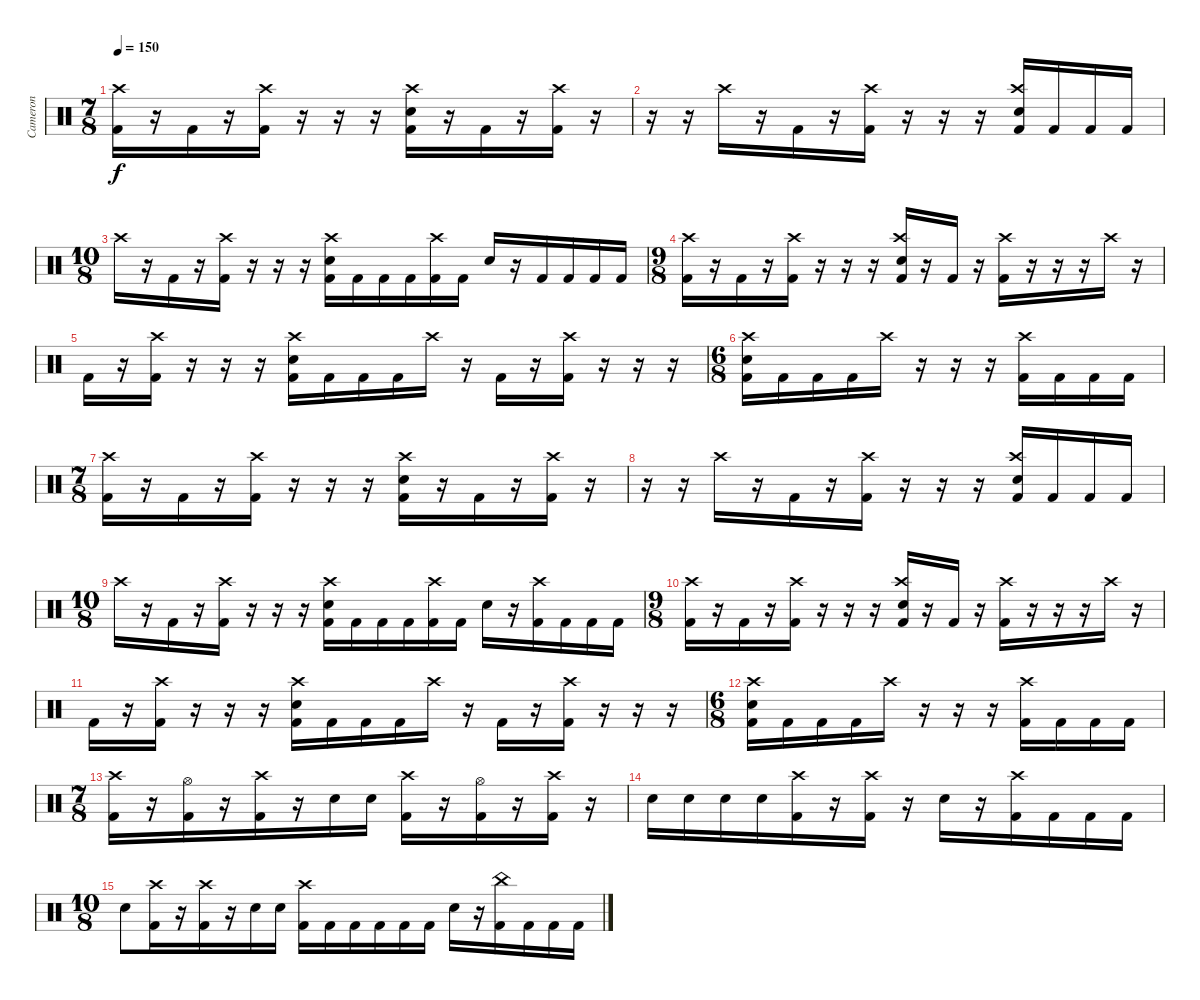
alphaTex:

\track ("Cameron" "Cameron") {instrument percussion}
\staff {score}
\articulation defaults
\ts (7 8)
\tempo 150
\clef neutral
\ks c
("Kick (hit) 2" "Crash high (hit)").16{dy f} r.16 "Kick (hit) 2".16 r.16 ("Kick (hit) 2" "Crash high (hit)").16 r.16 r.16 r.16 ("Kick (hit) 2" "Electric Snare (hit)" "Crash high (hit)").16 r.16 "Kick (hit) 2".16 r.16 ("Kick (hit) 2" "Crash high (hit)").16 r.16 |
r.16 r.16 "Crash high (hit)".16 r.16 "Kick (hit) 2".16 r.16 ("Kick (hit) 2" "Crash high (hit)").16 r.16 r.16 r.16 ("Kick (hit) 2" "Electric Snare (hit)" "Crash high (hit)").16 "Kick (hit) 2".16 "Kick (hit) 2".16 "Kick (hit) 2".16 |
\ts (10 8)
"Crash high (hit)".16 r.16 "Kick (hit) 2".16 r.16 ("Kick (hit) 2" "Crash high (hit)").16 r.16 r.16 r.16 ("Kick (hit) 2" "Electric Snare (hit)" "Crash high (hit)").16 "Kick (hit) 2".16 "Kick (hit) 2".16 "Kick (hit) 2".16 ("Kick (hit) 2" "Crash high (hit)").16 "Kick (hit) 2".16 "Electric Snare (hit)".16 r.16 "Kick (hit) 2".16 "Kick (hit) 2".16 "Kick (hit) 2".16 "Kick (hit) 2".16 |
\ts (9 8)
("Kick (hit) 2" "Crash high (hit)").16 r.16 "Kick (hit) 2".16 r.16 ("Kick (hit) 2" "Crash high (hit)").16 r.16 r.16 r.16 ("Kick (hit) 2" "Electric Snare (hit)" "Crash high (hit)").16 r.16 "Kick (hit) 2".16 r.16 ("Kick (hit) 2" "Crash high (hit)").16 r.16 r.16 r.16 "Crash high (hit)".16 r.16 |
"Kick (hit) 2".16 r.16 ("Kick (hit) 2" "Crash high (hit)").16 r.16 r.16 r.16 ("Kick (hit) 2" "Electric Snare (hit)" "Crash high (hit)").16 "Kick (hit) 2".16 "Kick (hit) 2".16 "Kick (hit) 2".16 "Crash high (hit)".16 r.16 "Kick (hit) 2".16 r.16 ("Kick (hit) 2" "Crash high (hit)").16 r.16 r.16 r.16 |
\ts (6 8)
("Kick (hit) 2" "Electric Snare (hit)" "Crash high (hit)").16 "Kick (hit) 2".16 "Kick (hit) 2".16 "Kick (hit) 2".16 "Crash high (hit)".16 r.16 r.16 r.16 ("Kick (hit) 2" "Crash high (hit)").16 "Kick (hit) 2".16 "Kick (hit) 2".16 "Kick (hit) 2".16 |
\ts (7 8)
("Kick (hit) 2" "Crash high (hit)").16 r.16 "Kick (hit) 2".16 r.16 ("Kick (hit) 2" "Crash high (hit)").16 r.16 r.16 r.16 ("Kick (hit) 2" "Electric Snare (hit)" "Crash high (hit)").16 r.16 "Kick (hit) 2".16 r.16 ("Kick (hit) 2" "Crash high (hit)").16 r.16 |
r.16 r.16 "Crash high (hit)".16 r.16 "Kick (hit) 2".16 r.16 ("Kick (hit) 2" "Crash high (hit)").16 r.16 r.16 r.16 ("Kick (hit) 2" "Electric Snare (hit)" "Crash high (hit)").16 "Kick (hit) 2".16 "Kick (hit) 2".16 "Kick (hit) 2".16 |
\ts (10 8)
"Crash high (hit)".16 r.16 "Kick (hit) 2".16 r.16 ("Kick (hit) 2" "Crash high (hit)").16 r.16 r.16 r.16 ("Kick (hit) 2" "Electric Snare (hit)" "Crash high (hit)").16 "Kick (hit) 2".16 "Kick (hit) 2".16 "Kick (hit) 2".16 ("Kick (hit) 2" "Crash high (hit)").16 "Kick (hit) 2".16 "Electric Snare (hit)".16 r.16 ("Kick (hit) 2" "Crash high (hit)").16 "Kick (hit) 2".16 "Kick (hit) 2".16 "Kick (hit) 2".16 |
\ts (9 8)
("Kick (hit) 2" "Crash high (hit)").16 r.16 "Kick (hit) 2".16 r.16 ("Kick (hit) 2" "Crash high (hit)").16 r.16 r.16 r.16 ("Kick (hit) 2" "Electric Snare (hit)" "Crash high (hit)").16 r.16 "Kick (hit) 2".16 r.16 ("Kick (hit) 2" "Crash high (hit)").16 r.16 r.16 r.16 "Crash high (hit)".16 r.16 |
"Kick (hit) 2".16 r.16 ("Kick (hit) 2" "Crash high (hit)").16 r.16 r.16 r.16 ("Kick (hit) 2" "Electric Snare (hit)" "Crash high (hit)").16 "Kick (hit) 2".16 "Kick (hit) 2".16 "Kick (hit) 2".16 "Crash high (hit)".16 r.16 "Kick (hit) 2".16 r.16 ("Kick (hit) 2" "Crash high (hit)").16 r.16 r.16 r.16 |
\ts (6 8)
("Kick (hit) 2" "Electric Snare (hit)" "Crash high (hit)").16 "Kick (hit) 2".16 "Kick (hit) 2".16 "Kick (hit) 2".16 "Crash high (hit)".16 r.16 r.16 r.16 ("Kick (hit) 2" "Crash high (hit)").16 "Kick (hit) 2".16 "Kick (hit) 2".16 "Kick (hit) 2".16 |
\ts (7 8)
("Kick (hit) 2" "Crash high (hit)").16 r.16 ("Kick (hit) 2" "Hi-Hat (open)").16 r.16 ("Kick (hit) 2" "Crash high (hit)").16 r.16 "Electric Snare (hit)".16 "Electric Snare (hit)".16 ("Kick (hit) 2" "Crash high (hit)").16 r.16 ("Kick (hit) 2" "Hi-Hat (open)").16 r.16 ("Kick (hit) 2" "Crash high (hit)").16 r.16 |
"Electric Snare (hit)".16 "Electric Snare (hit)".16 "Electric Snare (hit)".16 "Electric Snare (hit)".16 ("Kick (hit) 2" "Crash high (hit)").16 r.16 ("Kick (hit) 2" "Crash high (hit)").16 r.16 "Electric Snare (hit)".16 r.16 ("Kick (hit) 2" "Crash high (hit)").16 "Kick (hit) 2".16 "Kick (hit) 2".16 "Kick (hit) 2".16 |
\ts (10 8)
"Electric Snare (hit)".8 ("Kick (hit) 2" "Crash high (hit)").16 r.16 ("Kick (hit) 2" "Crash high (hit)").16 r.16 "Electric Snare (hit)".16 "Electric Snare (hit)".16 ("Kick (hit) 2" "Crash high (hit)").16 "Kick (hit) 2".16 "Kick (hit) 2".16 "Kick (hit) 2".16 "Kick (hit) 2".16 "Kick (hit) 2".16 "Electric Snare (hit)".16 r.16 ("Kick (hit) 2" "China (hit)").16 "Kick (hit) 2".16 "Kick (hit) 2".16 "Kick (hit) 2".16
